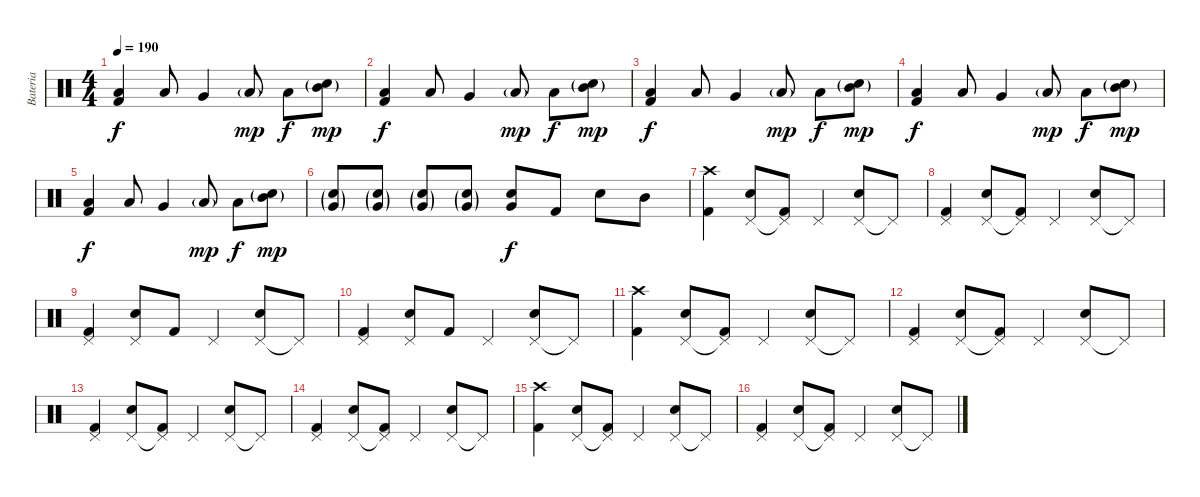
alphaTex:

\track ("Bateria" "Bateria") {instrument percussion}
\staff {score}
\articulation defaults
\ts (4 4)
\tempo 190
\clef neutral
\ks c
("Low Tom (hit)" "Kick (hit) 2").4{dy f} "Low Tom (hit)".8 "Very Low Tom (hit)".4 "Low Tom (hit)"{g}.8{dy mp} "Low Tom (hit)".8{dy f} ("Mid Tom (hit)"{g} "Snare (hit) 2"{g}).8{dy mp} |
("Low Tom (hit)" "Kick (hit) 2").4{dy f} "Low Tom (hit)".8 "Very Low Tom (hit)".4 "Low Tom (hit)"{g}.8{dy mp} "Low Tom (hit)".8{dy f} ("Mid Tom (hit)"{g} "Snare (hit) 2"{g}).8{dy mp} |
("Low Tom (hit)" "Kick (hit) 2").4{dy f} "Low Tom (hit)".8 "Very Low Tom (hit)".4 "Low Tom (hit)"{g}.8{dy mp} "Low Tom (hit)".8{dy f} ("Mid Tom (hit)"{g} "Snare (hit) 2"{g}).8{dy mp} |
("Low Tom (hit)" "Kick (hit) 2").4{dy f} "Low Tom (hit)".8 "Very Low Tom (hit)".4 "Low Tom (hit)"{g}.8{dy mp} "Low Tom (hit)".8{dy f} ("Mid Tom (hit)"{g} "Snare (hit) 2"{g}).8{dy mp} |
("Low Tom (hit)" "Kick (hit) 2").4{dy f} "Low Tom (hit)".8 "Very Low Tom (hit)".4 "Low Tom (hit)"{g}.8{dy mp} "Low Tom (hit)".8{dy f} ("Mid Tom (hit)"{g} "Snare (hit) 2"{g}).8{dy mp} |
("Very Low Tom (hit)"{g} "Snare (hit) 2"{g}).8 ("Very Low Tom (hit)"{g} "Snare (hit) 2"{g}).8 ("Very Low Tom (hit)"{g} "Snare (hit) 2"{g}).8 ("Very Low Tom (hit)"{g} "Snare (hit) 2"{g}).8 ("Very Low Tom (hit)" "Snare (hit) 2").8{dy f} "Kick (hit) 2".8 "Snare (hit) 2".8 "Mid Tom (hit)".8 |
("Crash high (hit)" "Kick (hit) 2").4 ("Pedal Hi-Hat (hit)" "Snare (hit) 2").8 ("Pedal Hi-Hat (hit)"{t} "Kick (hit) 2").8 "Pedal Hi-Hat (hit)".4 ("Pedal Hi-Hat (hit)" "Snare (hit) 2").8 "Pedal Hi-Hat (hit)"{t}.8 |
("Pedal Hi-Hat (hit)" "Kick (hit) 2").4 ("Pedal Hi-Hat (hit)" "Snare (hit) 2").8 ("Pedal Hi-Hat (hit)"{t} "Kick (hit) 2").8 "Pedal Hi-Hat (hit)".4 ("Pedal Hi-Hat (hit)" "Snare (hit) 2").8 "Pedal Hi-Hat (hit)"{t}.8 |
("Pedal Hi-Hat (hit)" "Kick (hit) 2").4 ("Pedal Hi-Hat (hit)" "Snare (hit) 2").8 "Kick (hit) 2".8 "Pedal Hi-Hat (hit)".4 ("Pedal Hi-Hat (hit)" "Snare (hit) 2").8 "Pedal Hi-Hat (hit)"{t}.8 |
("Pedal Hi-Hat (hit)" "Kick (hit) 2").4 ("Pedal Hi-Hat (hit)" "Snare (hit) 2").8 "Kick (hit) 2".8 "Pedal Hi-Hat (hit)".4 ("Pedal Hi-Hat (hit)" "Snare (hit) 2").8 "Pedal Hi-Hat (hit)"{t}.8 |
("Crash high (hit)" "Kick (hit) 2").4 ("Pedal Hi-Hat (hit)" "Snare (hit) 2").8 ("Pedal Hi-Hat (hit)"{t} "Kick (hit) 2").8 "Pedal Hi-Hat (hit)".4 ("Pedal Hi-Hat (hit)" "Snare (hit) 2").8 "Pedal Hi-Hat (hit)"{t}.8 |
("Pedal Hi-Hat (hit)" "Kick (hit) 2").4 ("Pedal Hi-Hat (hit)" "Snare (hit) 2").8 ("Pedal Hi-Hat (hit)"{t} "Kick (hit) 2").8 "Pedal Hi-Hat (hit)".4 ("Pedal Hi-Hat (hit)" "Snare (hit) 2").8 "Pedal Hi-Hat (hit)"{t}.8 |
("Pedal Hi-Hat (hit)" "Kick (hit) 2").4 ("Pedal Hi-Hat (hit)" "Snare (hit) 2").8 ("Pedal Hi-Hat (hit)"{t} "Kick (hit) 2").8 "Pedal Hi-Hat (hit)".4 ("Pedal Hi-Hat (hit)" "Snare (hit) 2").8 "Pedal Hi-Hat (hit)"{t}.8 |
("Pedal Hi-Hat (hit)" "Kick (hit) 2").4 ("Pedal Hi-Hat (hit)" "Snare (hit) 2").8 ("Pedal Hi-Hat (hit)"{t} "Kick (hit) 2").8 "Pedal Hi-Hat (hit)".4 ("Pedal Hi-Hat (hit)" "Snare (hit) 2").8 "Pedal Hi-Hat (hit)"{t}.8 |
("Crash high (hit)" "Kick (hit) 2").4 ("Pedal Hi-Hat (hit)" "Snare (hit) 2").8 ("Pedal Hi-Hat (hit)"{t} "Kick (hit) 2").8 "Pedal Hi-Hat (hit)".4 ("Pedal Hi-Hat (hit)" "Snare (hit) 2").8 "Pedal Hi-Hat (hit)"{t}.8 |
("Pedal Hi-Hat (hit)" "Kick (hit) 2").4 ("Pedal Hi-Hat (hit)" "Snare (hit) 2").8 ("Pedal Hi-Hat (hit)"{t} "Kick (hit) 2").8 "Pedal Hi-Hat (hit)".4 ("Pedal Hi-Hat (hit)" "Snare (hit) 2").8 "Pedal Hi-Hat (hit)"{t}.8
